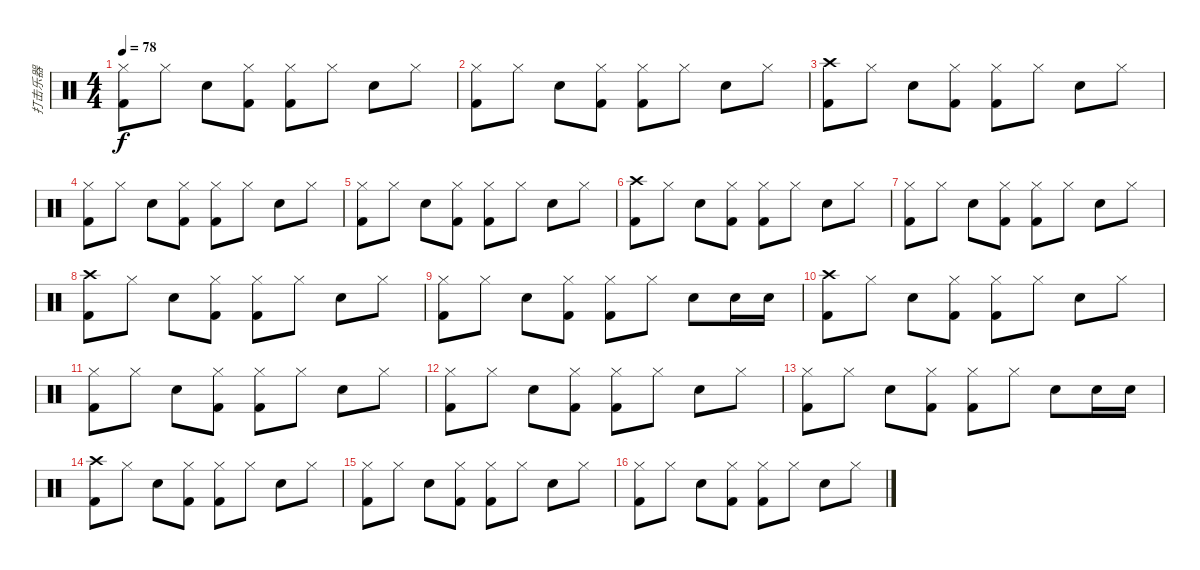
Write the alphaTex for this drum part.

\track ("打击乐器" "打击乐器") {instrument percussion}
\staff {score}
\articulation defaults
\ts (4 4)
\tempo 78
\clef neutral
\ks c
("Hi-Hat (closed)" "Kick (hit) 2").8{dy f} "Hi-Hat (closed)".8 "Snare (hit) 2".8 ("Hi-Hat (closed)" "Kick (hit) 2").8 ("Hi-Hat (closed)" "Kick (hit) 2").8 "Hi-Hat (closed)".8 "Snare (hit) 2".8 "Hi-Hat (closed)".8 |
("Hi-Hat (closed)" "Kick (hit) 2").8 "Hi-Hat (closed)".8 "Snare (hit) 2".8 ("Hi-Hat (closed)" "Kick (hit) 2").8 ("Hi-Hat (closed)" "Kick (hit) 2").8 "Hi-Hat (closed)".8 "Snare (hit) 2".8 "Hi-Hat (closed)".8 |
("Crash high (hit)" "Kick (hit) 2").8 "Hi-Hat (closed)".8 "Snare (hit) 2".8 ("Hi-Hat (closed)" "Kick (hit) 2").8 ("Hi-Hat (closed)" "Kick (hit) 2").8 "Hi-Hat (closed)".8 "Snare (hit) 2".8 "Hi-Hat (closed)".8 |
("Hi-Hat (closed)" "Kick (hit) 2").8 "Hi-Hat (closed)".8 "Snare (hit) 2".8 ("Hi-Hat (closed)" "Kick (hit) 2").8 ("Hi-Hat (closed)" "Kick (hit) 2").8 "Hi-Hat (closed)".8 "Snare (hit) 2".8 "Hi-Hat (closed)".8 |
("Hi-Hat (closed)" "Kick (hit) 2").8 "Hi-Hat (closed)".8 "Snare (hit) 2".8 ("Hi-Hat (closed)" "Kick (hit) 2").8 ("Hi-Hat (closed)" "Kick (hit) 2").8 "Hi-Hat (closed)".8 "Snare (hit) 2".8 "Hi-Hat (closed)".8 |
("Crash high (hit)" "Kick (hit) 2").8 "Hi-Hat (closed)".8 "Snare (hit) 2".8 ("Hi-Hat (closed)" "Kick (hit) 2").8 ("Hi-Hat (closed)" "Kick (hit) 2").8 "Hi-Hat (closed)".8 "Snare (hit) 2".8 "Hi-Hat (closed)".8 |
("Hi-Hat (closed)" "Kick (hit) 2").8 "Hi-Hat (closed)".8 "Snare (hit) 2".8 ("Hi-Hat (closed)" "Kick (hit) 2").8 ("Hi-Hat (closed)" "Kick (hit) 2").8 "Hi-Hat (closed)".8 "Snare (hit) 2".8 "Hi-Hat (closed)".8 |
("Crash high (hit)" "Kick (hit) 2").8 "Hi-Hat (closed)".8 "Snare (hit) 2".8 ("Hi-Hat (closed)" "Kick (hit) 2").8 ("Hi-Hat (closed)" "Kick (hit) 2").8 "Hi-Hat (closed)".8 "Snare (hit) 2".8 "Hi-Hat (closed)".8 |
("Hi-Hat (closed)" "Kick (hit) 2").8 "Hi-Hat (closed)".8 "Snare (hit) 2".8 ("Hi-Hat (closed)" "Kick (hit) 2").8 ("Hi-Hat (closed)" "Kick (hit) 2").8 "Hi-Hat (closed)".8 "Snare (hit) 2".8 "Snare (hit) 2".16 "Snare (hit) 2".16 |
("Crash high (hit)" "Kick (hit) 2").8 "Hi-Hat (closed)".8 "Snare (hit) 2".8 ("Hi-Hat (closed)" "Kick (hit) 2").8 ("Hi-Hat (closed)" "Kick (hit) 2").8 "Hi-Hat (closed)".8 "Snare (hit) 2".8 "Hi-Hat (closed)".8 |
("Hi-Hat (closed)" "Kick (hit) 2").8 "Hi-Hat (closed)".8 "Snare (hit) 2".8 ("Hi-Hat (closed)" "Kick (hit) 2").8 ("Hi-Hat (closed)" "Kick (hit) 2").8 "Hi-Hat (closed)".8 "Snare (hit) 2".8 "Hi-Hat (closed)".8 |
("Hi-Hat (closed)" "Kick (hit) 2").8 "Hi-Hat (closed)".8 "Snare (hit) 2".8 ("Hi-Hat (closed)" "Kick (hit) 2").8 ("Hi-Hat (closed)" "Kick (hit) 2").8 "Hi-Hat (closed)".8 "Snare (hit) 2".8 "Hi-Hat (closed)".8 |
("Hi-Hat (closed)" "Kick (hit) 2").8 "Hi-Hat (closed)".8 "Snare (hit) 2".8 ("Hi-Hat (closed)" "Kick (hit) 2").8 ("Hi-Hat (closed)" "Kick (hit) 2").8 "Hi-Hat (closed)".8 "Snare (hit) 2".8 "Snare (hit) 2".16 "Snare (hit) 2".16 |
("Crash high (hit)" "Kick (hit) 2").8 "Hi-Hat (closed)".8 "Snare (hit) 2".8 ("Hi-Hat (closed)" "Kick (hit) 2").8 ("Hi-Hat (closed)" "Kick (hit) 2").8 "Hi-Hat (closed)".8 "Snare (hit) 2".8 "Hi-Hat (closed)".8 |
("Hi-Hat (closed)" "Kick (hit) 2").8 "Hi-Hat (closed)".8 "Snare (hit) 2".8 ("Hi-Hat (closed)" "Kick (hit) 2").8 ("Hi-Hat (closed)" "Kick (hit) 2").8 "Hi-Hat (closed)".8 "Snare (hit) 2".8 "Hi-Hat (closed)".8 |
("Hi-Hat (closed)" "Kick (hit) 2").8 "Hi-Hat (closed)".8 "Snare (hit) 2".8 ("Hi-Hat (closed)" "Kick (hit) 2").8 ("Hi-Hat (closed)" "Kick (hit) 2").8 "Hi-Hat (closed)".8 "Snare (hit) 2".8 "Hi-Hat (closed)".8
